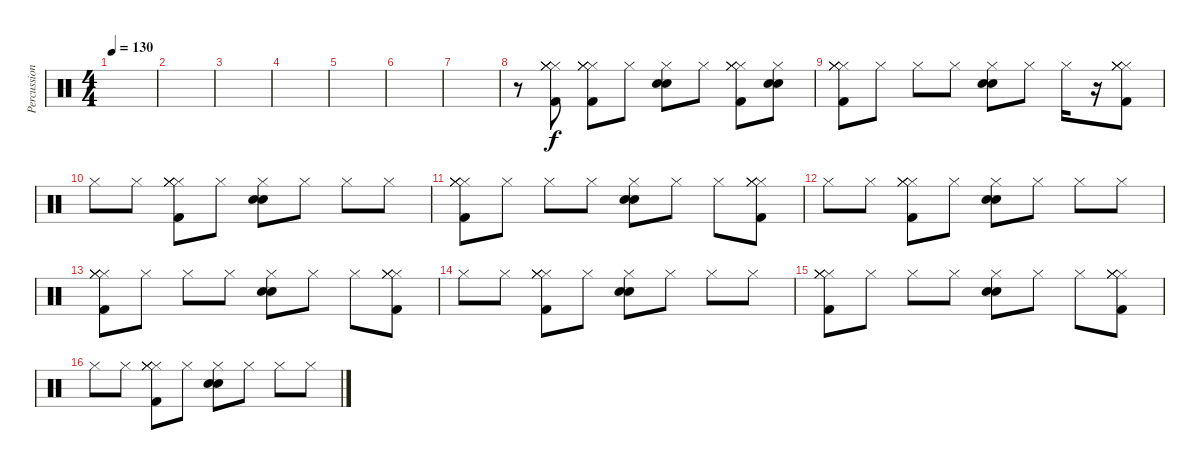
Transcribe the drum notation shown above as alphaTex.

\track ("Percussion" "Percussion") {instrument percussion}
\staff {score}
\articulation defaults
\ts (4 4)
\tempo 130
\clef neutral
\ks c
|
|
|
|
|
|
|
r.8 ("Hi-Hat (closed)" "Kick (hit) 2" "Hi-Hat (closed)" "Hi-Hat (closed)" "Hi-Hat (closed)").8 ("Hi-Hat (closed)" "Kick (hit) 2" "Hi-Hat (closed)" "Hi-Hat (closed)" "Hi-Hat (closed)").8 "Hi-Hat (closed)".8 ("Hi-Hat (closed)" "Snare (hit) 2" "Snare (hit) 2").8 "Hi-Hat (closed)".8 ("Hi-Hat (closed)" "Kick (hit) 2" "Hi-Hat (closed)" "Hi-Hat (closed)" "Hi-Hat (closed)").8 ("Hi-Hat (closed)" "Snare (hit) 2" "Snare (hit) 2").8 |
("Hi-Hat (closed)" "Hi-Hat (closed)" "Kick (hit) 2" "Hi-Hat (closed)" "Hi-Hat (closed)").8 "Hi-Hat (closed)".8 "Hi-Hat (closed)".8 "Hi-Hat (closed)".8 ("Hi-Hat (closed)" "Snare (hit) 2" "Snare (hit) 2").8 "Hi-Hat (closed)".8 "Hi-Hat (closed)".16 r.16 ("Hi-Hat (closed)" "Kick (hit) 2" "Hi-Hat (closed)" "Hi-Hat (closed)" "Hi-Hat (closed)").8 |
"Hi-Hat (closed)".8 "Hi-Hat (closed)".8 ("Hi-Hat (closed)" "Kick (hit) 2" "Hi-Hat (closed)" "Hi-Hat (closed)" "Hi-Hat (closed)").8 "Hi-Hat (closed)".8 ("Hi-Hat (closed)" "Snare (hit) 2" "Snare (hit) 2").8 "Hi-Hat (closed)".8 "Hi-Hat (closed)".8 "Hi-Hat (closed)".8 |
("Hi-Hat (closed)" "Hi-Hat (closed)" "Kick (hit) 2" "Hi-Hat (closed)" "Hi-Hat (closed)").8 "Hi-Hat (closed)".8 "Hi-Hat (closed)".8 "Hi-Hat (closed)".8 ("Hi-Hat (closed)" "Snare (hit) 2" "Snare (hit) 2").8 "Hi-Hat (closed)".8 "Hi-Hat (closed)".8 ("Hi-Hat (closed)" "Kick (hit) 2" "Hi-Hat (closed)" "Hi-Hat (closed)" "Hi-Hat (closed)").8 |
"Hi-Hat (closed)".8 "Hi-Hat (closed)".8 ("Hi-Hat (closed)" "Kick (hit) 2" "Hi-Hat (closed)" "Hi-Hat (closed)" "Hi-Hat (closed)").8 "Hi-Hat (closed)".8 ("Hi-Hat (closed)" "Snare (hit) 2" "Snare (hit) 2").8 "Hi-Hat (closed)".8 "Hi-Hat (closed)".8 "Hi-Hat (closed)".8 |
("Hi-Hat (closed)" "Hi-Hat (closed)" "Kick (hit) 2" "Hi-Hat (closed)" "Hi-Hat (closed)").8 "Hi-Hat (closed)".8 "Hi-Hat (closed)".8 "Hi-Hat (closed)".8 ("Hi-Hat (closed)" "Snare (hit) 2" "Snare (hit) 2").8 "Hi-Hat (closed)".8 "Hi-Hat (closed)".8 ("Hi-Hat (closed)" "Kick (hit) 2" "Hi-Hat (closed)" "Hi-Hat (closed)" "Hi-Hat (closed)").8 |
"Hi-Hat (closed)".8 "Hi-Hat (closed)".8 ("Hi-Hat (closed)" "Kick (hit) 2" "Hi-Hat (closed)" "Hi-Hat (closed)" "Hi-Hat (closed)").8 "Hi-Hat (closed)".8 ("Hi-Hat (closed)" "Snare (hit) 2" "Snare (hit) 2").8 "Hi-Hat (closed)".8 "Hi-Hat (closed)".8 "Hi-Hat (closed)".8 |
("Hi-Hat (closed)" "Hi-Hat (closed)" "Kick (hit) 2" "Hi-Hat (closed)" "Hi-Hat (closed)").8 "Hi-Hat (closed)".8 "Hi-Hat (closed)".8 "Hi-Hat (closed)".8 ("Hi-Hat (closed)" "Snare (hit) 2" "Snare (hit) 2").8 "Hi-Hat (closed)".8 "Hi-Hat (closed)".8 ("Hi-Hat (closed)" "Kick (hit) 2" "Hi-Hat (closed)" "Hi-Hat (closed)" "Hi-Hat (closed)").8 |
"Hi-Hat (closed)".8 "Hi-Hat (closed)".8 ("Hi-Hat (closed)" "Kick (hit) 2" "Hi-Hat (closed)" "Hi-Hat (closed)" "Hi-Hat (closed)").8 "Hi-Hat (closed)".8 ("Hi-Hat (closed)" "Snare (hit) 2" "Snare (hit) 2").8 "Hi-Hat (closed)".8 "Hi-Hat (closed)".8 "Hi-Hat (closed)".8
